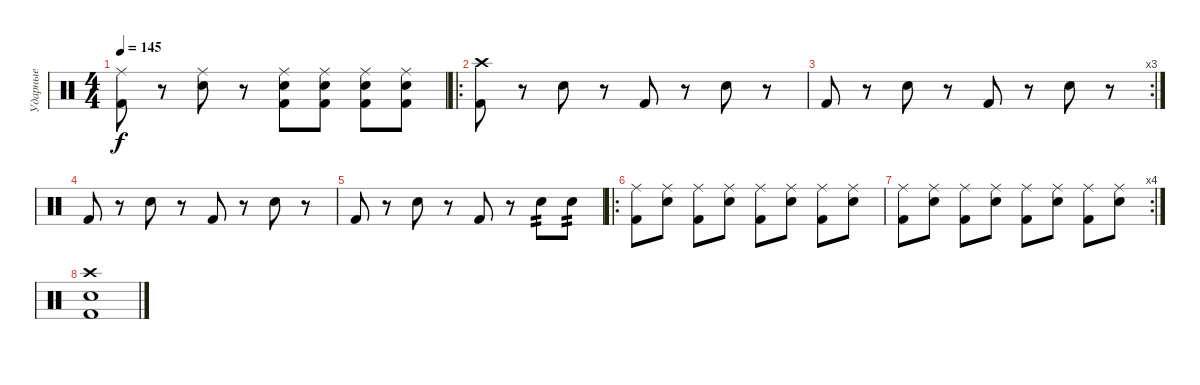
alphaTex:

\track ("Ударные" "Ударные") {instrument percussion}
\staff {score}
\articulation defaults
\ts (4 4)
\tempo 145
\clef neutral
\ks c
("Ride (middle)" "Kick (hit) 2").8{dy f} r.8 ("Ride (middle)" "Snare (hit) 2").8 r.8 ("Ride (middle)" "Snare (hit) 2" "Kick (hit) 2").8 ("Ride (middle)" "Snare (hit) 2" "Kick (hit) 2").8 ("Ride (middle)" "Snare (hit) 2" "Kick (hit) 2").8 ("Ride (middle)" "Snare (hit) 2" "Kick (hit) 2").8 |
\ro
("Crash high (hit)" "Kick (hit) 2").8 r.8 "Electric Snare (hit)".8 r.8 "Kick (hit) 2".8 r.8 "Electric Snare (hit)".8 r.8 |
\rc 3 "Kick (hit) 2".8
r.8 "Electric Snare (hit)".8 r.8 "Kick (hit) 2".8 r.8 "Electric Snare (hit)".8 r.8 |
"Kick (hit) 2".8 r.8 "Electric Snare (hit)".8 r.8 "Kick (hit) 2".8 r.8 "Electric Snare (hit)".8 r.8 |
"Kick (hit) 2".8 r.8 "Electric Snare (hit)".8 r.8 "Kick (hit) 2".8 r.8 "Electric Snare (hit)".8{tp 2} "Electric Snare (hit)".8{tp 2} |
\ro
("Ride (middle)" "Kick (hit) 2").8 ("Ride (middle)" "Electric Snare (hit)").8 ("Ride (middle)" "Kick (hit) 2").8 ("Ride (middle)" "Electric Snare (hit)").8 ("Ride (middle)" "Kick (hit) 2").8 ("Ride (middle)" "Electric Snare (hit)").8 ("Ride (middle)" "Kick (hit) 2").8 ("Ride (middle)" "Electric Snare (hit)").8 |
\rc 4
("Ride (middle)" "Kick (hit) 2").8 ("Ride (middle)" "Electric Snare (hit)").8 ("Ride (middle)" "Kick (hit) 2").8 ("Ride (middle)" "Electric Snare (hit)").8 ("Ride (middle)" "Kick (hit) 2").8 ("Ride (middle)" "Electric Snare (hit)").8 ("Ride (middle)" "Kick (hit) 2").8 ("Ride (middle)" "Electric Snare (hit)").8 |
("Snare (hit) 2" "Kick (hit) 2" "Crash high (hit)").1
